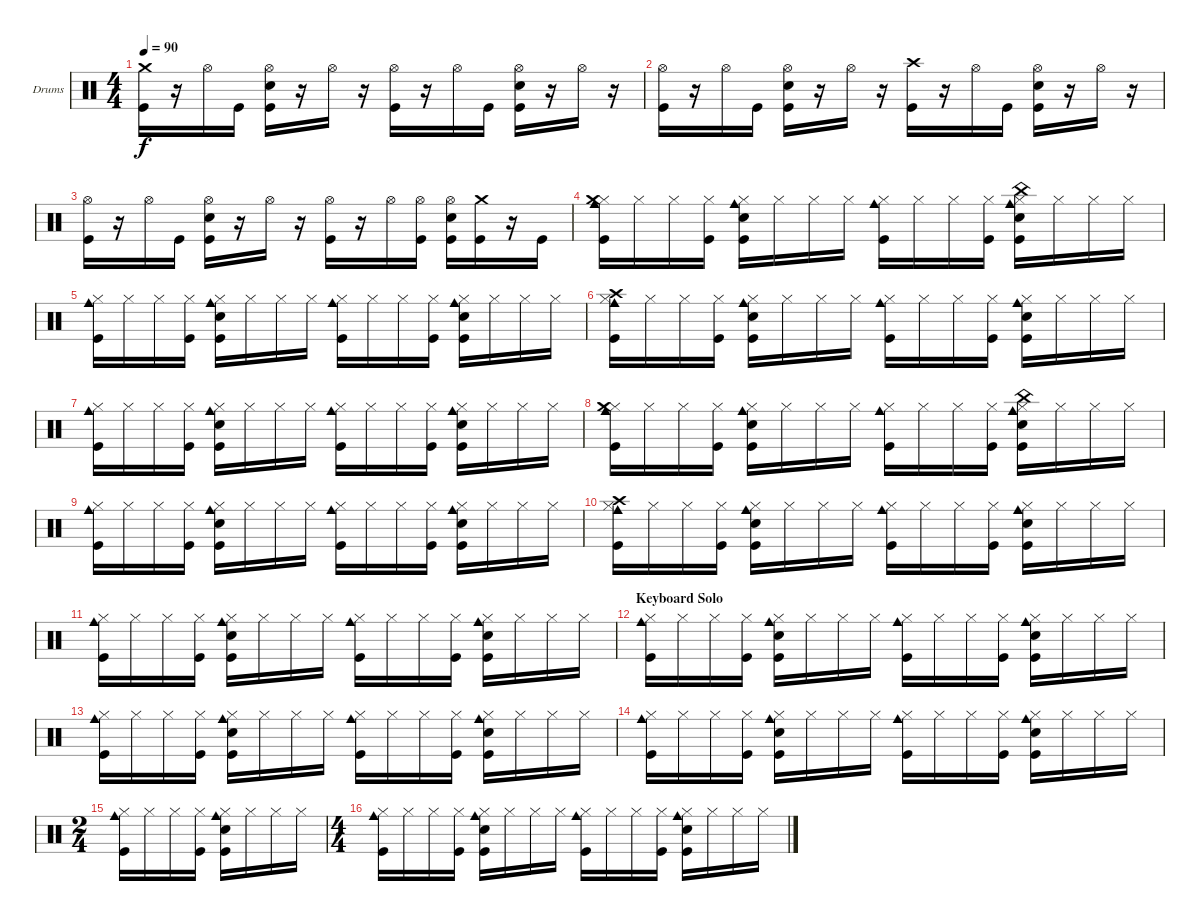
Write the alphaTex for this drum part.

\bracketExtendMode groupsimilarinstruments
\firstSystemTrackNameOrientation horizontal
\otherSystemsTrackNameOrientation horizontal
\track ("Drums" "Drums") {multiBarRest instrument percussion}
\staff {score}
\articulation defaults
\ts (4 4)
\tempo 90
\clef neutral
\ks c
("Crash medium (hit)" "Kick (hit)").16{dy f} r.16 "Hi-Hat (open)".16 "Kick (hit)".16 ("Hi-Hat (open)" "Snare (hit) 2" "Kick (hit)").16 r.16 "Hi-Hat (open)".16 r.16 ("Hi-Hat (open)" "Kick (hit)").16 r.16 "Hi-Hat (open)".16 "Kick (hit)".16 ("Hi-Hat (open)" "Snare (hit) 2" "Kick (hit)").16 r.16 "Hi-Hat (open)".16 r.16 |
("Hi-Hat (open)" "Kick (hit)").16 r.16 "Hi-Hat (open)".16 "Kick (hit)".16 ("Hi-Hat (open)" "Snare (hit) 2" "Kick (hit)").16 r.16 "Hi-Hat (open)".16 r.16 ("Crash high (hit)" "Kick (hit)").16 r.16 "Hi-Hat (open)".16 "Kick (hit)".16 ("Hi-Hat (open)" "Snare (hit) 2" "Kick (hit)").16 r.16 "Hi-Hat (open)".16 r.16 |
("Hi-Hat (open)" "Kick (hit)").16 r.16 "Hi-Hat (open)".16 "Kick (hit)".16 ("Hi-Hat (open)" "Snare (hit) 2" "Kick (hit)").16 r.16 "Hi-Hat (open)".16 r.16 ("Hi-Hat (open)" "Kick (hit)").16 r.16 "Hi-Hat (open)".16 ("Hi-Hat (open)" "Kick (hit)").16 ("Hi-Hat (open)" "Snare (hit) 2" "Kick (hit)").16 ("Crash medium (hit)" "Kick (hit)").16 r.16 "Kick (hit)".16 |
("Hi-Hat (closed)" "Crash medium (hit)" "Kick (hit)" "Cowbell medium (hit)").16 "Hi-Hat (closed)".16 "Hi-Hat (closed)".16 ("Hi-Hat (closed)" "Kick (hit)").16 ("Hi-Hat (closed)" "Snare (hit) 2" "Kick (hit)" "Cowbell medium (hit)").16 "Hi-Hat (closed)".16 "Hi-Hat (closed)".16 "Hi-Hat (closed)".16 ("Hi-Hat (closed)" "Kick (hit)" "Cowbell medium (hit)").16 "Hi-Hat (closed)".16 "Hi-Hat (closed)".16 ("Hi-Hat (closed)" "Kick (hit)").16 ("Hi-Hat (closed)" "Snare (hit) 2" "Kick (hit)" "China (hit)" "Cowbell medium (hit)").16 "Hi-Hat (closed)".16 "Hi-Hat (closed)".16 "Hi-Hat (closed)".16 |
("Hi-Hat (closed)" "Kick (hit)" "Cowbell medium (hit)").16 "Hi-Hat (closed)".16 "Hi-Hat (closed)".16 ("Hi-Hat (closed)" "Kick (hit)").16 ("Hi-Hat (closed)" "Snare (hit) 2" "Kick (hit)" "Cowbell medium (hit)").16 "Hi-Hat (closed)".16 "Hi-Hat (closed)".16 "Hi-Hat (closed)".16 ("Hi-Hat (closed)" "Kick (hit)" "Cowbell medium (hit)").16 "Hi-Hat (closed)".16 "Hi-Hat (closed)".16 ("Hi-Hat (closed)" "Kick (hit)").16 ("Hi-Hat (closed)" "Snare (hit) 2" "Kick (hit)" "Cowbell medium (hit)").16 "Hi-Hat (closed)".16 "Hi-Hat (closed)".16 "Hi-Hat (closed)".16 |
("Hi-Hat (closed)" "Crash high (hit)" "Kick (hit)" "Cowbell medium (hit)").16 "Hi-Hat (closed)".16 "Hi-Hat (closed)".16 ("Hi-Hat (closed)" "Kick (hit)").16 ("Hi-Hat (closed)" "Snare (hit) 2" "Kick (hit)" "Cowbell medium (hit)").16 "Hi-Hat (closed)".16 "Hi-Hat (closed)".16 "Hi-Hat (closed)".16 ("Hi-Hat (closed)" "Kick (hit)" "Cowbell medium (hit)").16 "Hi-Hat (closed)".16 "Hi-Hat (closed)".16 ("Hi-Hat (closed)" "Kick (hit)").16 ("Hi-Hat (closed)" "Snare (hit) 2" "Kick (hit)" "Cowbell medium (hit)").16 "Hi-Hat (closed)".16 "Hi-Hat (closed)".16 "Hi-Hat (closed)".16 |
("Hi-Hat (closed)" "Kick (hit)" "Cowbell medium (hit)").16 "Hi-Hat (closed)".16 "Hi-Hat (closed)".16 ("Hi-Hat (closed)" "Kick (hit)").16 ("Hi-Hat (closed)" "Snare (hit) 2" "Kick (hit)" "Cowbell medium (hit)").16 "Hi-Hat (closed)".16 "Hi-Hat (closed)".16 "Hi-Hat (closed)".16 ("Hi-Hat (closed)" "Kick (hit)" "Cowbell medium (hit)").16 "Hi-Hat (closed)".16 "Hi-Hat (closed)".16 ("Hi-Hat (closed)" "Kick (hit)").16 ("Hi-Hat (closed)" "Snare (hit) 2" "Kick (hit)" "Cowbell medium (hit)").16 "Hi-Hat (closed)".16 "Hi-Hat (closed)".16 "Hi-Hat (closed)".16 |
("Hi-Hat (closed)" "Crash medium (hit)" "Kick (hit)" "Cowbell medium (hit)").16 "Hi-Hat (closed)".16 "Hi-Hat (closed)".16 ("Hi-Hat (closed)" "Kick (hit)").16 ("Hi-Hat (closed)" "Snare (hit) 2" "Kick (hit)" "Cowbell medium (hit)").16 "Hi-Hat (closed)".16 "Hi-Hat (closed)".16 "Hi-Hat (closed)".16 ("Hi-Hat (closed)" "Kick (hit)" "Cowbell medium (hit)").16 "Hi-Hat (closed)".16 "Hi-Hat (closed)".16 ("Hi-Hat (closed)" "Kick (hit)").16 ("Hi-Hat (closed)" "Snare (hit) 2" "Kick (hit)" "China (hit)" "Cowbell medium (hit)").16 "Hi-Hat (closed)".16 "Hi-Hat (closed)".16 "Hi-Hat (closed)".16 |
("Hi-Hat (closed)" "Kick (hit)" "Cowbell medium (hit)").16 "Hi-Hat (closed)".16 "Hi-Hat (closed)".16 ("Hi-Hat (closed)" "Kick (hit)").16 ("Hi-Hat (closed)" "Snare (hit) 2" "Kick (hit)" "Cowbell medium (hit)").16 "Hi-Hat (closed)".16 "Hi-Hat (closed)".16 "Hi-Hat (closed)".16 ("Hi-Hat (closed)" "Kick (hit)" "Cowbell medium (hit)").16 "Hi-Hat (closed)".16 "Hi-Hat (closed)".16 ("Hi-Hat (closed)" "Kick (hit)").16 ("Hi-Hat (closed)" "Snare (hit) 2" "Kick (hit)" "Cowbell medium (hit)").16 "Hi-Hat (closed)".16 "Hi-Hat (closed)".16 "Hi-Hat (closed)".16 |
("Hi-Hat (closed)" "Crash high (hit)" "Kick (hit)" "Cowbell medium (hit)").16 "Hi-Hat (closed)".16 "Hi-Hat (closed)".16 ("Hi-Hat (closed)" "Kick (hit)").16 ("Hi-Hat (closed)" "Snare (hit) 2" "Kick (hit)" "Cowbell medium (hit)").16 "Hi-Hat (closed)".16 "Hi-Hat (closed)".16 "Hi-Hat (closed)".16 ("Hi-Hat (closed)" "Kick (hit)" "Cowbell medium (hit)").16 "Hi-Hat (closed)".16 "Hi-Hat (closed)".16 ("Hi-Hat (closed)" "Kick (hit)").16 ("Hi-Hat (closed)" "Snare (hit) 2" "Kick (hit)" "Cowbell medium (hit)").16 "Hi-Hat (closed)".16 "Hi-Hat (closed)".16 "Hi-Hat (closed)".16 |
("Hi-Hat (closed)" "Kick (hit)" "Cowbell medium (hit)").16 "Hi-Hat (closed)".16 "Hi-Hat (closed)".16 ("Hi-Hat (closed)" "Kick (hit)").16 ("Hi-Hat (closed)" "Snare (hit) 2" "Kick (hit)" "Cowbell medium (hit)").16 "Hi-Hat (closed)".16 "Hi-Hat (closed)".16 "Hi-Hat (closed)".16 ("Hi-Hat (closed)" "Kick (hit)" "Cowbell medium (hit)").16 "Hi-Hat (closed)".16 "Hi-Hat (closed)".16 ("Hi-Hat (closed)" "Kick (hit)").16 ("Hi-Hat (closed)" "Snare (hit) 2" "Kick (hit)" "Cowbell medium (hit)").16 "Hi-Hat (closed)".16 "Hi-Hat (closed)".16 "Hi-Hat (closed)".16 |
\section ("" "Keyboard Solo")
("Hi-Hat (closed)" "Kick (hit)" "Cowbell medium (hit)").16 "Hi-Hat (closed)".16 "Hi-Hat (closed)".16 ("Hi-Hat (closed)" "Kick (hit)").16 ("Hi-Hat (closed)" "Snare (hit) 2" "Kick (hit)" "Cowbell medium (hit)").16 "Hi-Hat (closed)".16 "Hi-Hat (closed)".16 "Hi-Hat (closed)".16 ("Hi-Hat (closed)" "Kick (hit)" "Cowbell medium (hit)").16 "Hi-Hat (closed)".16 "Hi-Hat (closed)".16 ("Hi-Hat (closed)" "Kick (hit)").16 ("Hi-Hat (closed)" "Snare (hit) 2" "Kick (hit)" "Cowbell medium (hit)").16 "Hi-Hat (closed)".16 "Hi-Hat (closed)".16 "Hi-Hat (closed)".16 |
("Hi-Hat (closed)" "Kick (hit)" "Cowbell medium (hit)").16 "Hi-Hat (closed)".16 "Hi-Hat (closed)".16 ("Hi-Hat (closed)" "Kick (hit)").16 ("Hi-Hat (closed)" "Snare (hit) 2" "Kick (hit)" "Cowbell medium (hit)").16 "Hi-Hat (closed)".16 "Hi-Hat (closed)".16 "Hi-Hat (closed)".16 ("Hi-Hat (closed)" "Kick (hit)" "Cowbell medium (hit)").16 "Hi-Hat (closed)".16 "Hi-Hat (closed)".16 ("Hi-Hat (closed)" "Kick (hit)").16 ("Hi-Hat (closed)" "Snare (hit) 2" "Kick (hit)" "Cowbell medium (hit)").16 "Hi-Hat (closed)".16 "Hi-Hat (closed)".16 "Hi-Hat (closed)".16 |
("Hi-Hat (closed)" "Kick (hit)" "Cowbell medium (hit)").16 "Hi-Hat (closed)".16 "Hi-Hat (closed)".16 ("Hi-Hat (closed)" "Kick (hit)").16 ("Hi-Hat (closed)" "Snare (hit) 2" "Kick (hit)" "Cowbell medium (hit)").16 "Hi-Hat (closed)".16 "Hi-Hat (closed)".16 "Hi-Hat (closed)".16 ("Hi-Hat (closed)" "Kick (hit)" "Cowbell medium (hit)").16 "Hi-Hat (closed)".16 "Hi-Hat (closed)".16 ("Hi-Hat (closed)" "Kick (hit)").16 ("Hi-Hat (closed)" "Snare (hit) 2" "Kick (hit)" "Cowbell medium (hit)").16 "Hi-Hat (closed)".16 "Hi-Hat (closed)".16 "Hi-Hat (closed)".16 |
\ts (2 4)
\beaming (8 2 2)
("Hi-Hat (closed)" "Kick (hit)" "Cowbell medium (hit)").16 "Hi-Hat (closed)".16 "Hi-Hat (closed)".16 ("Hi-Hat (closed)" "Kick (hit)").16 ("Hi-Hat (closed)" "Snare (hit) 2" "Kick (hit)" "Cowbell medium (hit)").16 "Hi-Hat (closed)".16 "Hi-Hat (closed)".16 "Hi-Hat (closed)".16 |
\ts (4 4)
\beaming (8 2 2 2 2)
("Hi-Hat (closed)" "Kick (hit)" "Cowbell medium (hit)").16 "Hi-Hat (closed)".16 "Hi-Hat (closed)".16 ("Hi-Hat (closed)" "Kick (hit)").16 ("Hi-Hat (closed)" "Snare (hit) 2" "Kick (hit)" "Cowbell medium (hit)").16 "Hi-Hat (closed)".16 "Hi-Hat (closed)".16 "Hi-Hat (closed)".16 ("Hi-Hat (closed)" "Kick (hit)" "Cowbell medium (hit)").16 "Hi-Hat (closed)".16 "Hi-Hat (closed)".16 ("Hi-Hat (closed)" "Kick (hit)").16 ("Hi-Hat (closed)" "Snare (hit) 2" "Kick (hit)" "Cowbell medium (hit)").16 "Hi-Hat (closed)".16 "Hi-Hat (closed)".16 "Hi-Hat (closed)".16
